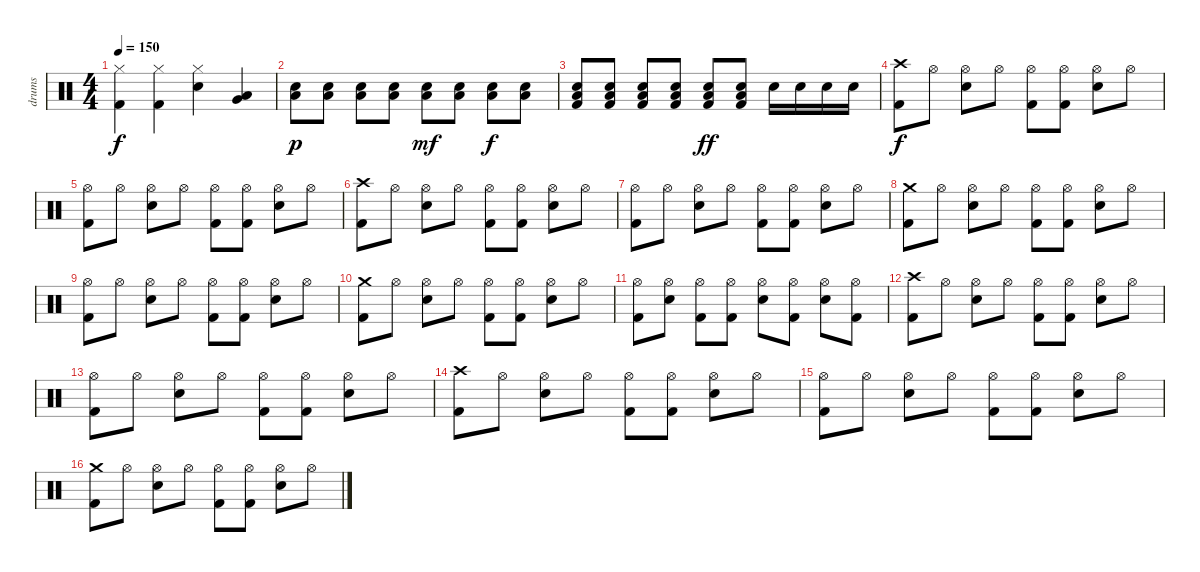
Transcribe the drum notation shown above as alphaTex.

\track ("drums" "drums") {instrument percussion}
\staff {score}
\articulation defaults
\ts (4 4)
\tempo 150
\clef neutral
\ks c
("Hi-Hat (closed)" "Kick (hit) 2").4{dy f} ("Hi-Hat (closed)" "Kick (hit) 2").4 ("Hi-Hat (closed)" "Electric Snare (hit)").4 ("Low Floor Tom (hit)" "Very Low Tom (hit)").4 |
("Low Floor Tom (hit)" "Electric Snare (hit)").8{dy p} ("Low Floor Tom (hit)" "Electric Snare (hit)").8 ("Low Floor Tom (hit)" "Electric Snare (hit)").8 ("Low Floor Tom (hit)" "Electric Snare (hit)").8 ("Low Floor Tom (hit)" "Electric Snare (hit)").8{dy mf} ("Low Floor Tom (hit)" "Electric Snare (hit)").8 ("Low Floor Tom (hit)" "Electric Snare (hit)").8{dy f} ("Low Floor Tom (hit)" "Electric Snare (hit)").8 |
("Low Floor Tom (hit)" "Electric Snare (hit)" "Kick (hit) 2").8 ("Low Floor Tom (hit)" "Electric Snare (hit)" "Kick (hit) 2").8 ("Low Floor Tom (hit)" "Electric Snare (hit)" "Kick (hit) 2").8 ("Low Floor Tom (hit)" "Electric Snare (hit)" "Kick (hit) 2").8 ("Low Floor Tom (hit)" "Electric Snare (hit)" "Kick (hit) 2").8{dy ff} ("Low Floor Tom (hit)" "Electric Snare (hit)" "Kick (hit) 2").8 "Electric Snare (hit)".16 "Electric Snare (hit)".16 "Electric Snare (hit)".16 "Electric Snare (hit)".16 |
("Crash high (hit)" "Kick (hit) 2").8{dy f} "Hi-Hat (open)".8 ("Hi-Hat (open)" "Electric Snare (hit)").8 "Hi-Hat (open)".8 ("Hi-Hat (open)" "Kick (hit) 2").8 ("Hi-Hat (open)" "Kick (hit) 2").8 ("Hi-Hat (open)" "Electric Snare (hit)").8 "Hi-Hat (open)".8 |
("Hi-Hat (open)" "Kick (hit) 2").8 "Hi-Hat (open)".8 ("Hi-Hat (open)" "Electric Snare (hit)").8 "Hi-Hat (open)".8 ("Hi-Hat (open)" "Kick (hit) 2").8 ("Hi-Hat (open)" "Kick (hit) 2").8 ("Hi-Hat (open)" "Electric Snare (hit)").8 "Hi-Hat (open)".8 |
("Crash high (hit)" "Kick (hit) 2").8 "Hi-Hat (open)".8 ("Hi-Hat (open)" "Electric Snare (hit)").8 "Hi-Hat (open)".8 ("Hi-Hat (open)" "Kick (hit) 2").8 ("Hi-Hat (open)" "Kick (hit) 2").8 ("Hi-Hat (open)" "Electric Snare (hit)").8 "Hi-Hat (open)".8 |
("Hi-Hat (open)" "Kick (hit) 2").8 "Hi-Hat (open)".8 ("Hi-Hat (open)" "Electric Snare (hit)").8 "Hi-Hat (open)".8 ("Hi-Hat (open)" "Kick (hit) 2").8 ("Hi-Hat (open)" "Kick (hit) 2").8 ("Hi-Hat (open)" "Electric Snare (hit)").8 "Hi-Hat (open)".8 |
("Crash medium (hit)" "Kick (hit) 2").8 "Hi-Hat (open)".8 ("Hi-Hat (open)" "Electric Snare (hit)").8 "Hi-Hat (open)".8 ("Hi-Hat (open)" "Kick (hit) 2").8 ("Hi-Hat (open)" "Kick (hit) 2").8 ("Hi-Hat (open)" "Electric Snare (hit)").8 "Hi-Hat (open)".8 |
("Hi-Hat (open)" "Kick (hit) 2").8 "Hi-Hat (open)".8 ("Hi-Hat (open)" "Electric Snare (hit)").8 "Hi-Hat (open)".8 ("Hi-Hat (open)" "Kick (hit) 2").8 ("Hi-Hat (open)" "Kick (hit) 2").8 ("Hi-Hat (open)" "Electric Snare (hit)").8 "Hi-Hat (open)".8 |
("Crash medium (hit)" "Kick (hit) 2").8 "Hi-Hat (open)".8 ("Hi-Hat (open)" "Electric Snare (hit)").8 "Hi-Hat (open)".8 ("Hi-Hat (open)" "Kick (hit) 2").8 ("Hi-Hat (open)" "Kick (hit) 2").8 ("Hi-Hat (open)" "Electric Snare (hit)").8 "Hi-Hat (open)".8 |
("Hi-Hat (open)" "Kick (hit) 2").8 ("Hi-Hat (open)" "Electric Snare (hit)").8 ("Hi-Hat (open)" "Kick (hit) 2").8 ("Hi-Hat (open)" "Kick (hit) 2").8 ("Hi-Hat (open)" "Electric Snare (hit)").8 ("Hi-Hat (open)" "Kick (hit) 2").8 ("Hi-Hat (open)" "Electric Snare (hit)").8 ("Hi-Hat (open)" "Kick (hit) 2").8 |
("Crash high (hit)" "Kick (hit) 2").8 "Hi-Hat (open)".8 ("Hi-Hat (open)" "Electric Snare (hit)").8 "Hi-Hat (open)".8 ("Hi-Hat (open)" "Kick (hit) 2").8 ("Hi-Hat (open)" "Kick (hit) 2").8 ("Hi-Hat (open)" "Electric Snare (hit)").8 "Hi-Hat (open)".8 |
("Hi-Hat (open)" "Kick (hit) 2").8 "Hi-Hat (open)".8 ("Hi-Hat (open)" "Electric Snare (hit)").8 "Hi-Hat (open)".8 ("Hi-Hat (open)" "Kick (hit) 2").8 ("Hi-Hat (open)" "Kick (hit) 2").8 ("Hi-Hat (open)" "Electric Snare (hit)").8 "Hi-Hat (open)".8 |
("Crash high (hit)" "Kick (hit) 2").8 "Hi-Hat (open)".8 ("Hi-Hat (open)" "Electric Snare (hit)").8 "Hi-Hat (open)".8 ("Hi-Hat (open)" "Kick (hit) 2").8 ("Hi-Hat (open)" "Kick (hit) 2").8 ("Hi-Hat (open)" "Electric Snare (hit)").8 "Hi-Hat (open)".8 |
("Hi-Hat (open)" "Kick (hit) 2").8 "Hi-Hat (open)".8 ("Hi-Hat (open)" "Electric Snare (hit)").8 "Hi-Hat (open)".8 ("Hi-Hat (open)" "Kick (hit) 2").8 ("Hi-Hat (open)" "Kick (hit) 2").8 ("Hi-Hat (open)" "Electric Snare (hit)").8 "Hi-Hat (open)".8 |
("Crash medium (hit)" "Kick (hit) 2").8 "Hi-Hat (open)".8 ("Hi-Hat (open)" "Electric Snare (hit)").8 "Hi-Hat (open)".8 ("Hi-Hat (open)" "Kick (hit) 2").8 ("Hi-Hat (open)" "Kick (hit) 2").8 ("Hi-Hat (open)" "Electric Snare (hit)").8 "Hi-Hat (open)".8
